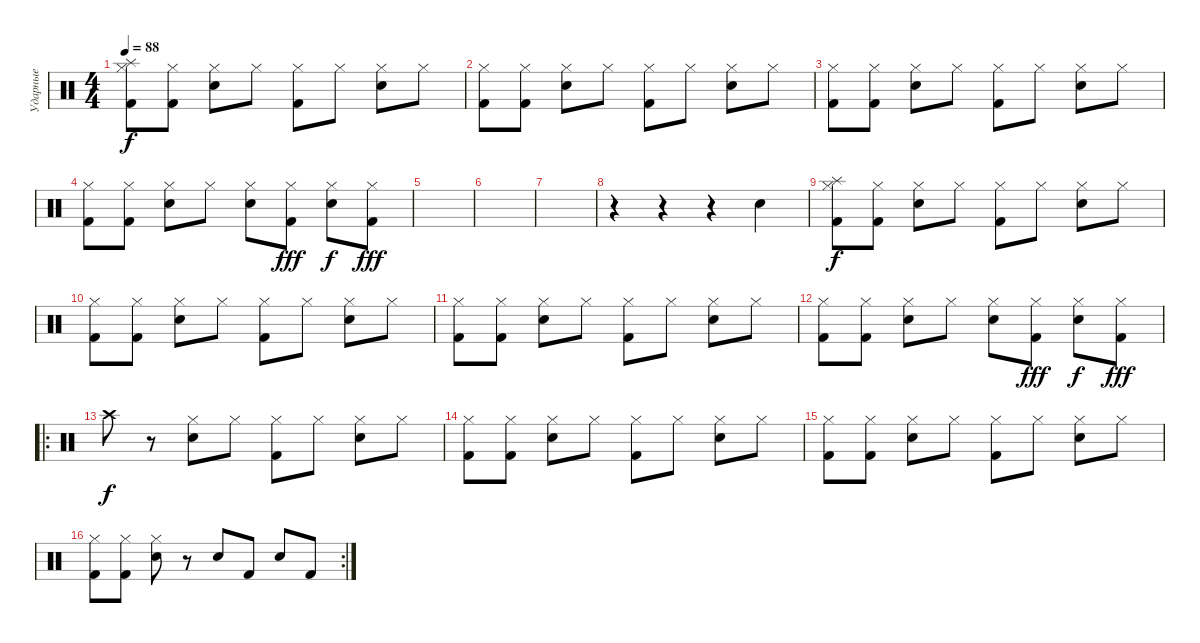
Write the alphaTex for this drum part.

\track ("Ударные" "Ударные") {instrument percussion}
\staff {score}
\articulation defaults
\ts (4 4)
\tempo 88
\clef neutral
\ks c
("Splash (hit)" "Hi-Hat (closed)" "Kick (hit) 2").8{dy f} ("Hi-Hat (closed)" "Kick (hit) 2").8 ("Hi-Hat (closed)" "Snare (hit) 2").8 "Hi-Hat (closed)".8 ("Hi-Hat (closed)" "Kick (hit) 2").8 "Hi-Hat (closed)".8 ("Hi-Hat (closed)" "Snare (hit) 2").8 "Hi-Hat (closed)".8 |
("Hi-Hat (closed)" "Kick (hit) 2").8 ("Hi-Hat (closed)" "Kick (hit) 2").8 ("Hi-Hat (closed)" "Snare (hit) 2").8 "Hi-Hat (closed)".8 ("Hi-Hat (closed)" "Kick (hit) 2").8 "Hi-Hat (closed)".8 ("Hi-Hat (closed)" "Snare (hit) 2").8 "Hi-Hat (closed)".8 |
("Hi-Hat (closed)" "Kick (hit) 2").8 ("Hi-Hat (closed)" "Kick (hit) 2").8 ("Hi-Hat (closed)" "Snare (hit) 2").8 "Hi-Hat (closed)".8 ("Hi-Hat (closed)" "Kick (hit) 2").8 "Hi-Hat (closed)".8 ("Hi-Hat (closed)" "Snare (hit) 2").8 "Hi-Hat (closed)".8 |
("Hi-Hat (closed)" "Kick (hit) 2").8 ("Hi-Hat (closed)" "Kick (hit) 2").8 ("Hi-Hat (closed)" "Snare (hit) 2").8 "Hi-Hat (closed)".8 ("Hi-Hat (closed)" "Snare (hit) 2").8 ("Hi-Hat (closed)" "Kick (hit) 2").8{dy fff} ("Hi-Hat (closed)" "Snare (hit) 2").8{dy f} ("Hi-Hat (closed)" "Kick (hit) 2").8{dy fff} |
|
|
|
r.4 r.4 r.4 "Snare (hit) 2".4 |
("Splash (hit)" "Hi-Hat (closed)" "Kick (hit) 2").8{dy f} ("Hi-Hat (closed)" "Kick (hit) 2").8 ("Hi-Hat (closed)" "Snare (hit) 2").8 "Hi-Hat (closed)".8 ("Hi-Hat (closed)" "Kick (hit) 2").8 "Hi-Hat (closed)".8 ("Hi-Hat (closed)" "Snare (hit) 2").8 "Hi-Hat (closed)".8 |
("Hi-Hat (closed)" "Kick (hit) 2").8 ("Hi-Hat (closed)" "Kick (hit) 2").8 ("Hi-Hat (closed)" "Snare (hit) 2").8 "Hi-Hat (closed)".8 ("Hi-Hat (closed)" "Kick (hit) 2").8 "Hi-Hat (closed)".8 ("Hi-Hat (closed)" "Snare (hit) 2").8 "Hi-Hat (closed)".8 |
("Hi-Hat (closed)" "Kick (hit) 2").8 ("Hi-Hat (closed)" "Kick (hit) 2").8 ("Hi-Hat (closed)" "Snare (hit) 2").8 "Hi-Hat (closed)".8 ("Hi-Hat (closed)" "Kick (hit) 2").8 "Hi-Hat (closed)".8 ("Hi-Hat (closed)" "Snare (hit) 2").8 "Hi-Hat (closed)".8 |
("Hi-Hat (closed)" "Kick (hit) 2").8 ("Hi-Hat (closed)" "Kick (hit) 2").8 ("Hi-Hat (closed)" "Snare (hit) 2").8 "Hi-Hat (closed)".8 ("Hi-Hat (closed)" "Snare (hit) 2").8 ("Hi-Hat (closed)" "Kick (hit) 2").8{dy fff} ("Hi-Hat (closed)" "Snare (hit) 2").8{dy f} ("Hi-Hat (closed)" "Kick (hit) 2").8{dy fff} |
\ro "Crash high (hit)".8{dy f}
r.8 ("Hi-Hat (closed)" "Snare (hit) 2").8 "Hi-Hat (closed)".8 ("Hi-Hat (closed)" "Kick (hit) 2").8 "Hi-Hat (closed)".8 ("Hi-Hat (closed)" "Snare (hit) 2").8 "Hi-Hat (closed)".8 |
("Hi-Hat (closed)" "Kick (hit) 2").8 ("Hi-Hat (closed)" "Kick (hit) 2").8 ("Hi-Hat (closed)" "Snare (hit) 2").8 "Hi-Hat (closed)".8 ("Hi-Hat (closed)" "Kick (hit) 2").8 "Hi-Hat (closed)".8 ("Hi-Hat (closed)" "Snare (hit) 2").8 "Hi-Hat (closed)".8 |
("Hi-Hat (closed)" "Kick (hit) 2").8 ("Hi-Hat (closed)" "Kick (hit) 2").8 ("Hi-Hat (closed)" "Snare (hit) 2").8 "Hi-Hat (closed)".8 ("Hi-Hat (closed)" "Kick (hit) 2").8 "Hi-Hat (closed)".8 ("Hi-Hat (closed)" "Snare (hit) 2").8 "Hi-Hat (closed)".8 |
\rc 2
("Hi-Hat (closed)" "Kick (hit) 2").8 ("Hi-Hat (closed)" "Kick (hit) 2").8 ("Hi-Hat (closed)" "Snare (hit) 2").8 r.8 "Snare (hit) 2".8 "Kick (hit) 2".8 "Snare (hit) 2".8 "Kick (hit) 2".8
